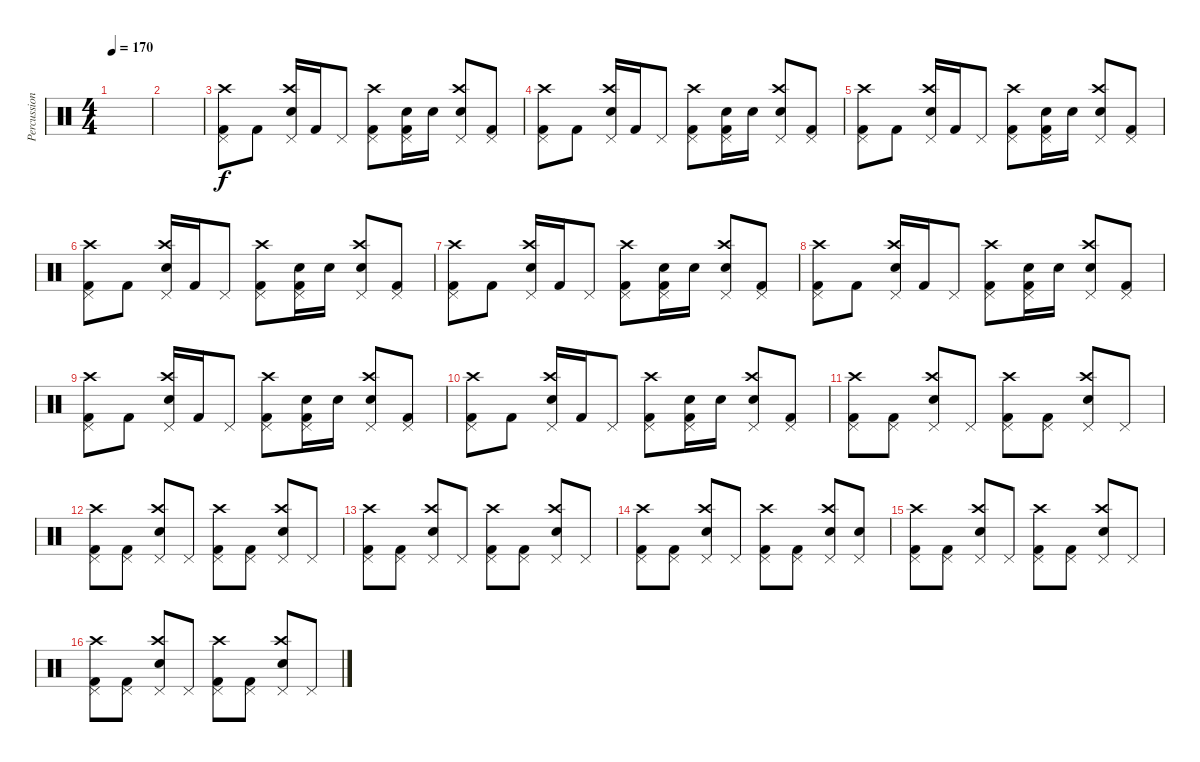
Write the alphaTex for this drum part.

\track ("Percussion" "Percussion") {instrument percussion}
\staff {score}
\articulation defaults
\ts (4 4)
\tempo 170
\clef neutral
\ks c
|
|
("Pedal Hi-Hat (hit)" "Kick (hit) 2" "Crash high (hit)").8 "Kick (hit) 2".8 ("Pedal Hi-Hat (hit)" "Electric Snare (hit)" "Crash high (hit)").16 "Kick (hit) 2".16 "Pedal Hi-Hat (hit)".8 ("Pedal Hi-Hat (hit)" "Kick (hit) 2" "Crash high (hit)").8 ("Pedal Hi-Hat (hit)" "Electric Snare (hit)" "Kick (hit) 2").16 "Electric Snare (hit)".16 ("Pedal Hi-Hat (hit)" "Electric Snare (hit)" "Crash high (hit)").8 ("Pedal Hi-Hat (hit)" "Kick (hit) 2").8 |
("Pedal Hi-Hat (hit)" "Kick (hit) 2" "Crash high (hit)").8 "Kick (hit) 2".8 ("Pedal Hi-Hat (hit)" "Electric Snare (hit)" "Crash high (hit)").16 "Kick (hit) 2".16 "Pedal Hi-Hat (hit)".8 ("Pedal Hi-Hat (hit)" "Kick (hit) 2" "Crash high (hit)").8 ("Pedal Hi-Hat (hit)" "Electric Snare (hit)" "Kick (hit) 2").16 "Electric Snare (hit)".16 ("Pedal Hi-Hat (hit)" "Electric Snare (hit)" "Crash high (hit)").8 ("Pedal Hi-Hat (hit)" "Kick (hit) 2").8 |
("Pedal Hi-Hat (hit)" "Kick (hit) 2" "Crash high (hit)").8 "Kick (hit) 2".8 ("Pedal Hi-Hat (hit)" "Electric Snare (hit)" "Crash high (hit)").16 "Kick (hit) 2".16 "Pedal Hi-Hat (hit)".8 ("Pedal Hi-Hat (hit)" "Kick (hit) 2" "Crash high (hit)").8 ("Pedal Hi-Hat (hit)" "Electric Snare (hit)" "Kick (hit) 2").16 "Electric Snare (hit)".16 ("Pedal Hi-Hat (hit)" "Electric Snare (hit)" "Crash high (hit)").8 ("Pedal Hi-Hat (hit)" "Kick (hit) 2").8 |
("Pedal Hi-Hat (hit)" "Kick (hit) 2" "Crash high (hit)").8 "Kick (hit) 2".8 ("Pedal Hi-Hat (hit)" "Electric Snare (hit)" "Crash high (hit)").16 "Kick (hit) 2".16 "Pedal Hi-Hat (hit)".8 ("Pedal Hi-Hat (hit)" "Kick (hit) 2" "Crash high (hit)").8 ("Pedal Hi-Hat (hit)" "Electric Snare (hit)" "Kick (hit) 2").16 "Electric Snare (hit)".16 ("Pedal Hi-Hat (hit)" "Electric Snare (hit)" "Crash high (hit)").8 ("Pedal Hi-Hat (hit)" "Kick (hit) 2").8 |
("Pedal Hi-Hat (hit)" "Kick (hit) 2" "Crash high (hit)").8 "Kick (hit) 2".8 ("Pedal Hi-Hat (hit)" "Electric Snare (hit)" "Crash high (hit)").16 "Kick (hit) 2".16 "Pedal Hi-Hat (hit)".8 ("Pedal Hi-Hat (hit)" "Kick (hit) 2" "Crash high (hit)").8 ("Pedal Hi-Hat (hit)" "Electric Snare (hit)" "Kick (hit) 2").16 "Electric Snare (hit)".16 ("Pedal Hi-Hat (hit)" "Electric Snare (hit)" "Crash high (hit)").8 ("Pedal Hi-Hat (hit)" "Kick (hit) 2").8 |
("Pedal Hi-Hat (hit)" "Kick (hit) 2" "Crash high (hit)").8 "Kick (hit) 2".8 ("Pedal Hi-Hat (hit)" "Electric Snare (hit)" "Crash high (hit)").16 "Kick (hit) 2".16 "Pedal Hi-Hat (hit)".8 ("Pedal Hi-Hat (hit)" "Kick (hit) 2" "Crash high (hit)").8 ("Pedal Hi-Hat (hit)" "Electric Snare (hit)" "Kick (hit) 2").16 "Electric Snare (hit)".16 ("Pedal Hi-Hat (hit)" "Electric Snare (hit)" "Crash high (hit)").8 ("Pedal Hi-Hat (hit)" "Kick (hit) 2").8 |
("Pedal Hi-Hat (hit)" "Kick (hit) 2" "Crash high (hit)").8 "Kick (hit) 2".8 ("Pedal Hi-Hat (hit)" "Electric Snare (hit)" "Crash high (hit)").16 "Kick (hit) 2".16 "Pedal Hi-Hat (hit)".8 ("Pedal Hi-Hat (hit)" "Kick (hit) 2" "Crash high (hit)").8 ("Pedal Hi-Hat (hit)" "Electric Snare (hit)" "Kick (hit) 2").16 "Electric Snare (hit)".16 ("Pedal Hi-Hat (hit)" "Electric Snare (hit)" "Crash high (hit)").8 ("Pedal Hi-Hat (hit)" "Kick (hit) 2").8 |
("Pedal Hi-Hat (hit)" "Kick (hit) 2" "Crash high (hit)").8 "Kick (hit) 2".8 ("Pedal Hi-Hat (hit)" "Electric Snare (hit)" "Crash high (hit)").16 "Kick (hit) 2".16 "Pedal Hi-Hat (hit)".8 ("Pedal Hi-Hat (hit)" "Kick (hit) 2" "Crash high (hit)").8 ("Pedal Hi-Hat (hit)" "Electric Snare (hit)" "Kick (hit) 2").16 "Electric Snare (hit)".16 ("Pedal Hi-Hat (hit)" "Electric Snare (hit)" "Crash high (hit)").8 ("Pedal Hi-Hat (hit)" "Kick (hit) 2").8 |
("Pedal Hi-Hat (hit)" "Kick (hit) 2" "Crash high (hit)").8 ("Pedal Hi-Hat (hit)" "Kick (hit) 2").8 ("Pedal Hi-Hat (hit)" "Electric Snare (hit)" "Crash high (hit)").8 "Pedal Hi-Hat (hit)".8 ("Pedal Hi-Hat (hit)" "Kick (hit) 2" "Crash high (hit)").8 ("Pedal Hi-Hat (hit)" "Kick (hit) 2").8 ("Pedal Hi-Hat (hit)" "Electric Snare (hit)" "Crash high (hit)").8 "Pedal Hi-Hat (hit)".8 |
("Pedal Hi-Hat (hit)" "Kick (hit) 2" "Crash high (hit)").8 ("Pedal Hi-Hat (hit)" "Kick (hit) 2").8 ("Pedal Hi-Hat (hit)" "Electric Snare (hit)" "Crash high (hit)").8 "Pedal Hi-Hat (hit)".8 ("Pedal Hi-Hat (hit)" "Kick (hit) 2" "Crash high (hit)").8 ("Pedal Hi-Hat (hit)" "Kick (hit) 2").8 ("Pedal Hi-Hat (hit)" "Electric Snare (hit)" "Crash high (hit)").8 "Pedal Hi-Hat (hit)".8 |
("Pedal Hi-Hat (hit)" "Kick (hit) 2" "Crash high (hit)").8 ("Pedal Hi-Hat (hit)" "Kick (hit) 2").8 ("Pedal Hi-Hat (hit)" "Electric Snare (hit)" "Crash high (hit)").8 "Pedal Hi-Hat (hit)".8 ("Pedal Hi-Hat (hit)" "Kick (hit) 2" "Crash high (hit)").8 ("Pedal Hi-Hat (hit)" "Kick (hit) 2").8 ("Pedal Hi-Hat (hit)" "Electric Snare (hit)" "Crash high (hit)").8 "Pedal Hi-Hat (hit)".8 |
("Pedal Hi-Hat (hit)" "Kick (hit) 2" "Crash high (hit)").8 ("Pedal Hi-Hat (hit)" "Kick (hit) 2").8 ("Pedal Hi-Hat (hit)" "Electric Snare (hit)" "Crash high (hit)").8 "Pedal Hi-Hat (hit)".8 ("Pedal Hi-Hat (hit)" "Kick (hit) 2" "Crash high (hit)").8 ("Pedal Hi-Hat (hit)" "Kick (hit) 2").8 ("Pedal Hi-Hat (hit)" "Electric Snare (hit)" "Crash high (hit)").8 ("Pedal Hi-Hat (hit)" "Electric Snare (hit)").8 |
("Pedal Hi-Hat (hit)" "Kick (hit) 2" "Crash high (hit)").8 ("Pedal Hi-Hat (hit)" "Kick (hit) 2").8 ("Pedal Hi-Hat (hit)" "Electric Snare (hit)" "Crash high (hit)").8 "Pedal Hi-Hat (hit)".8 ("Pedal Hi-Hat (hit)" "Kick (hit) 2" "Crash high (hit)").8 ("Pedal Hi-Hat (hit)" "Kick (hit) 2").8 ("Pedal Hi-Hat (hit)" "Electric Snare (hit)" "Crash high (hit)").8 "Pedal Hi-Hat (hit)".8 |
("Pedal Hi-Hat (hit)" "Kick (hit) 2" "Crash high (hit)").8 ("Pedal Hi-Hat (hit)" "Kick (hit) 2").8 ("Pedal Hi-Hat (hit)" "Electric Snare (hit)" "Crash high (hit)").8 "Pedal Hi-Hat (hit)".8 ("Pedal Hi-Hat (hit)" "Kick (hit) 2" "Crash high (hit)").8 ("Pedal Hi-Hat (hit)" "Kick (hit) 2").8 ("Pedal Hi-Hat (hit)" "Electric Snare (hit)" "Crash high (hit)").8 "Pedal Hi-Hat (hit)".8
